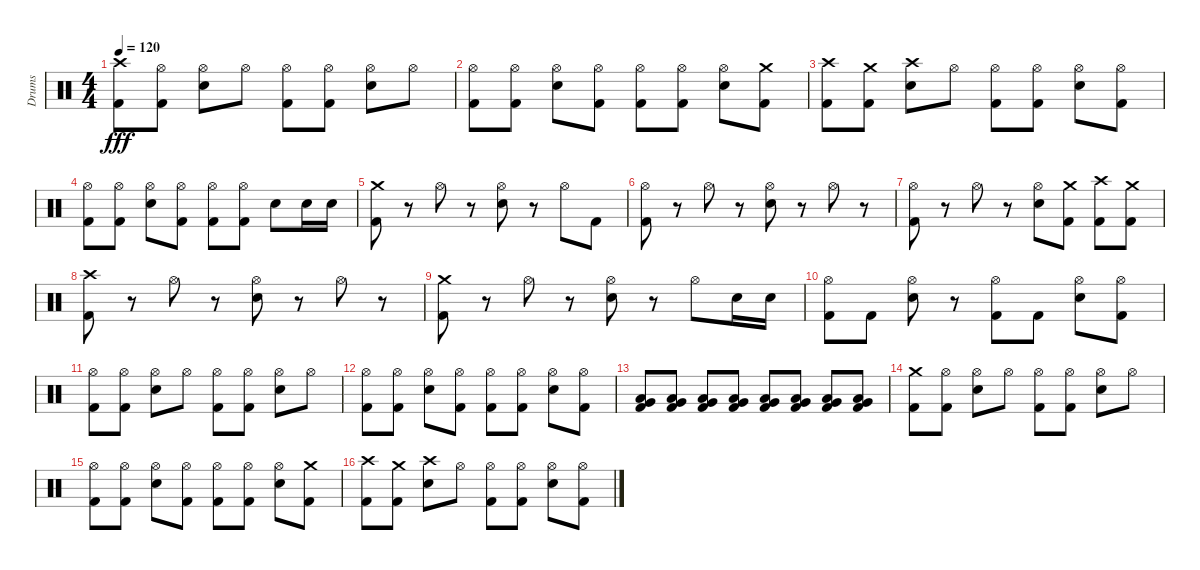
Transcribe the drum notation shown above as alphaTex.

\track ("Drums" "Drums") {instrument percussion}
\staff {score}
\articulation defaults
\ts (4 4)
\tempo 120
\clef neutral
\ks c
("Kick (hit) 2" "Crash high (hit)").8{dy fff} ("Hi-Hat (open)" "Kick (hit) 2").8 ("Hi-Hat (open)" "Electric Snare (hit)").8 "Hi-Hat (open)".8 ("Hi-Hat (open)" "Kick (hit) 2").8 ("Hi-Hat (open)" "Kick (hit) 2").8 ("Hi-Hat (open)" "Electric Snare (hit)").8 "Hi-Hat (open)".8 |
("Hi-Hat (open)" "Kick (hit) 2").8 ("Hi-Hat (open)" "Kick (hit) 2").8 ("Hi-Hat (open)" "Electric Snare (hit)").8 ("Kick (hit) 2" "Hi-Hat (open)").8 ("Hi-Hat (open)" "Kick (hit) 2").8 ("Hi-Hat (open)" "Kick (hit) 2").8 ("Hi-Hat (open)" "Electric Snare (hit)").8 ("Crash medium (hit)" "Kick (hit) 2").8 |
("Kick (hit) 2" "Crash high (hit)").8 ("Crash medium (hit)" "Kick (hit) 2").8 ("Crash high (hit)" "Electric Snare (hit)").8 "Hi-Hat (open)".8 ("Hi-Hat (open)" "Kick (hit) 2").8 ("Hi-Hat (open)" "Kick (hit) 2").8 ("Hi-Hat (open)" "Electric Snare (hit)").8 ("Hi-Hat (open)" "Kick (hit) 2").8 |
("Hi-Hat (open)" "Kick (hit) 2").8 ("Hi-Hat (open)" "Kick (hit) 2").8 ("Hi-Hat (open)" "Electric Snare (hit)").8 ("Hi-Hat (open)" "Kick (hit) 2").8 ("Hi-Hat (open)" "Kick (hit) 2").8 ("Hi-Hat (open)" "Kick (hit) 2").8 "Electric Snare (hit)".8 "Electric Snare (hit)".16 "Electric Snare (hit)".16 |
("Crash medium (hit)" "Kick (hit) 2").8 r.8 "Hi-Hat (open)".8 r.8 ("Hi-Hat (open)" "Electric Snare (hit)").8 r.8 "Hi-Hat (open)".8 "Kick (hit) 2".8 |
("Hi-Hat (open)" "Kick (hit) 2").8 r.8 "Hi-Hat (open)".8 r.8 ("Hi-Hat (open)" "Electric Snare (hit)").8 r.8 "Hi-Hat (open)".8 r.8 |
("Hi-Hat (open)" "Kick (hit) 2").8 r.8 "Hi-Hat (open)".8 r.8 ("Hi-Hat (open)" "Electric Snare (hit)").8 ("Kick (hit) 2" "Crash medium (hit)").8 ("Kick (hit) 2" "Crash high (hit)").8 ("Kick (hit) 2" "Crash medium (hit)").8 |
("Kick (hit) 2" "Crash high (hit)").8 r.8 "Hi-Hat (open)".8 r.8 ("Hi-Hat (open)" "Electric Snare (hit)").8 r.8 "Hi-Hat (open)".8 r.8 |
("Kick (hit) 2" "Crash medium (hit)").8 r.8 "Hi-Hat (open)".8 r.8 ("Hi-Hat (open)" "Electric Snare (hit)").8 r.8 "Hi-Hat (open)".8 "Electric Snare (hit)".16 "Electric Snare (hit)".16 |
("Hi-Hat (open)" "Kick (hit) 2").8 "Kick (hit) 2".8 ("Hi-Hat (open)" "Electric Snare (hit)").8 r.8 ("Hi-Hat (open)" "Kick (hit) 2").8 "Kick (hit) 2".8 ("Hi-Hat (open)" "Electric Snare (hit)").8 ("Kick (hit) 2" "Hi-Hat (open)").8 |
("Hi-Hat (open)" "Kick (hit) 2").8 ("Hi-Hat (open)" "Kick (hit) 2").8 ("Hi-Hat (open)" "Electric Snare (hit)").8 "Hi-Hat (open)".8 ("Hi-Hat (open)" "Kick (hit) 2").8 ("Hi-Hat (open)" "Kick (hit) 2").8 ("Hi-Hat (open)" "Electric Snare (hit)").8 "Hi-Hat (open)".8 |
("Hi-Hat (open)" "Kick (hit) 2").8 ("Hi-Hat (open)" "Kick (hit) 2").8 ("Hi-Hat (open)" "Electric Snare (hit)").8 ("Hi-Hat (open)" "Kick (hit) 2").8 ("Hi-Hat (open)" "Kick (hit) 2").8 ("Hi-Hat (open)" "Kick (hit) 2").8 ("Hi-Hat (open)" "Electric Snare (hit)").8 ("Hi-Hat (open)" "Kick (hit) 2").8 |
("Low Tom (hit)" "Very Low Tom (hit)" "Kick (hit) 2").8 ("Kick (hit) 2" "Very Low Tom (hit)" "Low Tom (hit)").8 ("Kick (hit) 2" "Very Low Tom (hit)" "Low Tom (hit)").8 ("Kick (hit) 2" "Very Low Tom (hit)" "Low Tom (hit)").8 ("Kick (hit) 2" "Very Low Tom (hit)" "Low Tom (hit)").8 ("Kick (hit) 2" "Very Low Tom (hit)" "Low Tom (hit)").8 ("Kick (hit) 2" "Very Low Tom (hit)" "Low Tom (hit)").8 ("Kick (hit) 2" "Very Low Tom (hit)" "Low Tom (hit)").8 |
("Kick (hit) 2" "Crash medium (hit)").8 ("Hi-Hat (open)" "Kick (hit) 2").8 ("Hi-Hat (open)" "Electric Snare (hit)").8 "Hi-Hat (open)".8 ("Hi-Hat (open)" "Kick (hit) 2").8 ("Hi-Hat (open)" "Kick (hit) 2").8 ("Hi-Hat (open)" "Electric Snare (hit)").8 "Hi-Hat (open)".8 |
("Hi-Hat (open)" "Kick (hit) 2").8 ("Hi-Hat (open)" "Kick (hit) 2").8 ("Hi-Hat (open)" "Electric Snare (hit)").8 ("Kick (hit) 2" "Hi-Hat (open)").8 ("Hi-Hat (open)" "Kick (hit) 2").8 ("Hi-Hat (open)" "Kick (hit) 2").8 ("Hi-Hat (open)" "Electric Snare (hit)").8 ("Crash medium (hit)" "Kick (hit) 2").8 |
("Kick (hit) 2" "Crash high (hit)").8 ("Crash medium (hit)" "Kick (hit) 2").8 ("Crash high (hit)" "Electric Snare (hit)").8 "Hi-Hat (open)".8 ("Hi-Hat (open)" "Kick (hit) 2").8 ("Hi-Hat (open)" "Kick (hit) 2").8 ("Hi-Hat (open)" "Electric Snare (hit)").8 ("Hi-Hat (open)" "Kick (hit) 2").8
